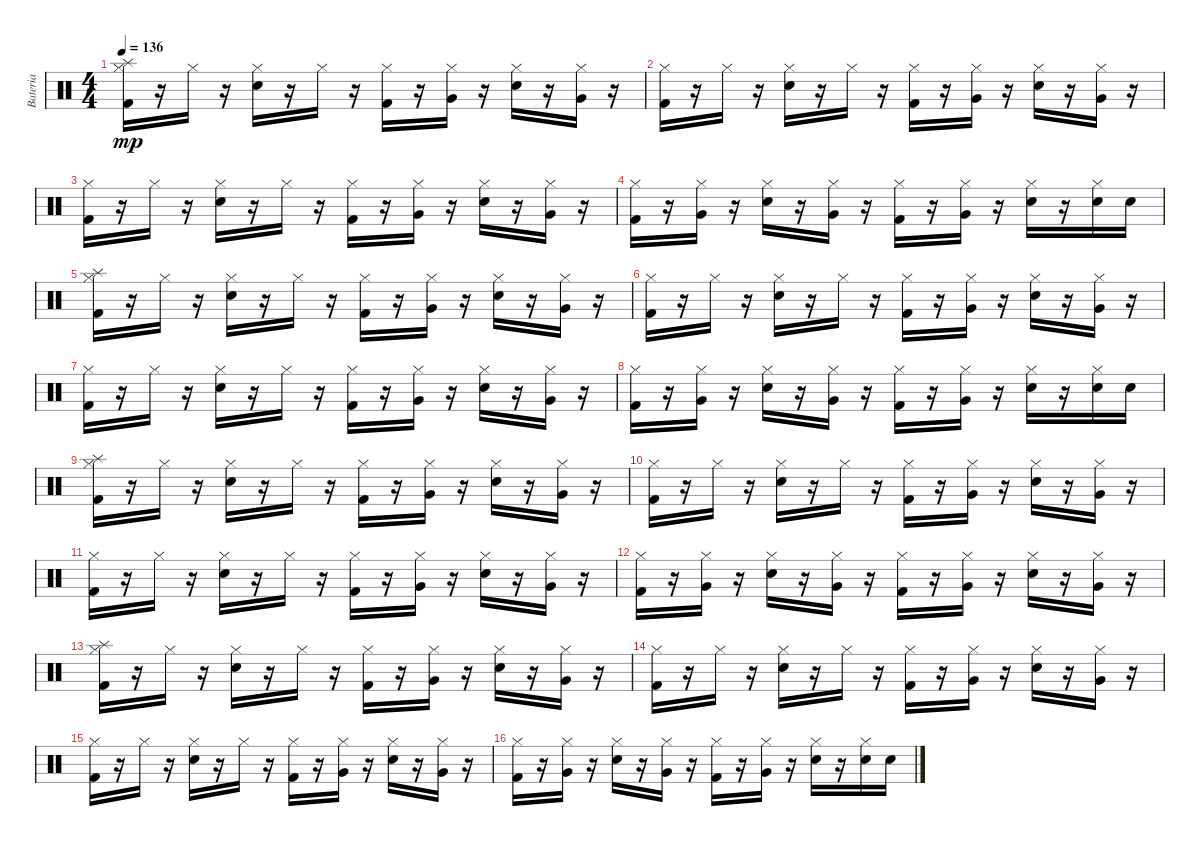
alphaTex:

\track ("Bateria" "Bateria") {instrument percussion}
\staff {score}
\articulation defaults
\ts (4 4)
\tempo 136
\clef neutral
\ks c
("Kick (hit) 2" "Hi-Hat (closed)" "Splash (hit)").16{dy mp} r.16 "Hi-Hat (closed)".16 r.16 ("Snare (hit) 2" "Hi-Hat (closed)").16 r.16 "Hi-Hat (closed)".16 r.16 ("Kick (hit) 2" "Hi-Hat (closed)").16 r.16 ("Hi-Hat (closed)" "Very Low Tom (hit)").16 r.16 ("Snare (hit) 2" "Hi-Hat (closed)").16 r.16 ("Hi-Hat (closed)" "Very Low Tom (hit)").16 r.16 |
("Kick (hit) 2" "Hi-Hat (closed)").16 r.16 "Hi-Hat (closed)".16 r.16 ("Snare (hit) 2" "Hi-Hat (closed)").16 r.16 "Hi-Hat (closed)".16 r.16 ("Kick (hit) 2" "Hi-Hat (closed)").16 r.16 ("Hi-Hat (closed)" "Very Low Tom (hit)").16 r.16 ("Snare (hit) 2" "Hi-Hat (closed)").16 r.16 ("Hi-Hat (closed)" "Very Low Tom (hit)").16 r.16 |
("Kick (hit) 2" "Hi-Hat (closed)").16 r.16 "Hi-Hat (closed)".16 r.16 ("Snare (hit) 2" "Hi-Hat (closed)").16 r.16 "Hi-Hat (closed)".16 r.16 ("Kick (hit) 2" "Hi-Hat (closed)").16 r.16 ("Hi-Hat (closed)" "Very Low Tom (hit)").16 r.16 ("Snare (hit) 2" "Hi-Hat (closed)").16 r.16 ("Hi-Hat (closed)" "Very Low Tom (hit)").16 r.16 |
("Kick (hit) 2" "Hi-Hat (closed)").16 r.16 ("Hi-Hat (closed)" "Very Low Tom (hit)").16 r.16 ("Snare (hit) 2" "Hi-Hat (closed)").16 r.16 ("Hi-Hat (closed)" "Very Low Tom (hit)").16 r.16 ("Kick (hit) 2" "Hi-Hat (closed)").16 r.16 ("Hi-Hat (closed)" "Very Low Tom (hit)").16 r.16 ("Snare (hit) 2" "Hi-Hat (closed)").16 r.16 ("Snare (hit) 2" "Hi-Hat (closed)").16 "Snare (hit) 2".16 |
("Kick (hit) 2" "Hi-Hat (closed)" "Splash (hit)").16 r.16 "Hi-Hat (closed)".16 r.16 ("Snare (hit) 2" "Hi-Hat (closed)").16 r.16 "Hi-Hat (closed)".16 r.16 ("Kick (hit) 2" "Hi-Hat (closed)").16 r.16 ("Hi-Hat (closed)" "Very Low Tom (hit)").16 r.16 ("Snare (hit) 2" "Hi-Hat (closed)").16 r.16 ("Hi-Hat (closed)" "Very Low Tom (hit)").16 r.16 |
("Kick (hit) 2" "Hi-Hat (closed)").16 r.16 "Hi-Hat (closed)".16 r.16 ("Snare (hit) 2" "Hi-Hat (closed)").16 r.16 "Hi-Hat (closed)".16 r.16 ("Kick (hit) 2" "Hi-Hat (closed)").16 r.16 ("Hi-Hat (closed)" "Very Low Tom (hit)").16 r.16 ("Snare (hit) 2" "Hi-Hat (closed)").16 r.16 ("Hi-Hat (closed)" "Very Low Tom (hit)").16 r.16 |
("Kick (hit) 2" "Hi-Hat (closed)").16 r.16 "Hi-Hat (closed)".16 r.16 ("Snare (hit) 2" "Hi-Hat (closed)").16 r.16 "Hi-Hat (closed)".16 r.16 ("Kick (hit) 2" "Hi-Hat (closed)").16 r.16 ("Hi-Hat (closed)" "Very Low Tom (hit)").16 r.16 ("Snare (hit) 2" "Hi-Hat (closed)").16 r.16 ("Hi-Hat (closed)" "Very Low Tom (hit)").16 r.16 |
("Kick (hit) 2" "Hi-Hat (closed)").16 r.16 ("Hi-Hat (closed)" "Very Low Tom (hit)").16 r.16 ("Snare (hit) 2" "Hi-Hat (closed)").16 r.16 ("Hi-Hat (closed)" "Very Low Tom (hit)").16 r.16 ("Kick (hit) 2" "Hi-Hat (closed)").16 r.16 ("Hi-Hat (closed)" "Very Low Tom (hit)").16 r.16 ("Snare (hit) 2" "Hi-Hat (closed)").16 r.16 ("Snare (hit) 2" "Hi-Hat (closed)").16 "Snare (hit) 2".16 |
("Kick (hit) 2" "Hi-Hat (closed)" "Splash (hit)").16 r.16 "Hi-Hat (closed)".16 r.16 ("Snare (hit) 2" "Hi-Hat (closed)").16 r.16 "Hi-Hat (closed)".16 r.16 ("Kick (hit) 2" "Hi-Hat (closed)").16 r.16 ("Hi-Hat (closed)" "Very Low Tom (hit)").16 r.16 ("Snare (hit) 2" "Hi-Hat (closed)").16 r.16 ("Hi-Hat (closed)" "Very Low Tom (hit)").16 r.16 |
("Kick (hit) 2" "Hi-Hat (closed)").16 r.16 "Hi-Hat (closed)".16 r.16 ("Snare (hit) 2" "Hi-Hat (closed)").16 r.16 "Hi-Hat (closed)".16 r.16 ("Kick (hit) 2" "Hi-Hat (closed)").16 r.16 ("Hi-Hat (closed)" "Very Low Tom (hit)").16 r.16 ("Snare (hit) 2" "Hi-Hat (closed)").16 r.16 ("Hi-Hat (closed)" "Very Low Tom (hit)").16 r.16 |
("Kick (hit) 2" "Hi-Hat (closed)").16 r.16 "Hi-Hat (closed)".16 r.16 ("Snare (hit) 2" "Hi-Hat (closed)").16 r.16 "Hi-Hat (closed)".16 r.16 ("Kick (hit) 2" "Hi-Hat (closed)").16 r.16 ("Hi-Hat (closed)" "Very Low Tom (hit)").16 r.16 ("Snare (hit) 2" "Hi-Hat (closed)").16 r.16 ("Hi-Hat (closed)" "Very Low Tom (hit)").16 r.16 |
("Kick (hit) 2" "Hi-Hat (closed)").16 r.16 ("Hi-Hat (closed)" "Very Low Tom (hit)").16 r.16 ("Snare (hit) 2" "Hi-Hat (closed)").16 r.16 ("Hi-Hat (closed)" "Very Low Tom (hit)").16 r.16 ("Kick (hit) 2" "Hi-Hat (closed)").16 r.16 ("Hi-Hat (closed)" "Very Low Tom (hit)").16 r.16 ("Snare (hit) 2" "Hi-Hat (closed)").16 r.16 ("Hi-Hat (closed)" "Very Low Tom (hit)").16 r.16 |
("Kick (hit) 2" "Hi-Hat (closed)" "Splash (hit)").16 r.16 "Hi-Hat (closed)".16 r.16 ("Snare (hit) 2" "Hi-Hat (closed)").16 r.16 "Hi-Hat (closed)".16 r.16 ("Kick (hit) 2" "Hi-Hat (closed)").16 r.16 ("Hi-Hat (closed)" "Very Low Tom (hit)").16 r.16 ("Snare (hit) 2" "Hi-Hat (closed)").16 r.16 ("Hi-Hat (closed)" "Very Low Tom (hit)").16 r.16 |
("Kick (hit) 2" "Hi-Hat (closed)").16 r.16 "Hi-Hat (closed)".16 r.16 ("Snare (hit) 2" "Hi-Hat (closed)").16 r.16 "Hi-Hat (closed)".16 r.16 ("Kick (hit) 2" "Hi-Hat (closed)").16 r.16 ("Hi-Hat (closed)" "Very Low Tom (hit)").16 r.16 ("Snare (hit) 2" "Hi-Hat (closed)").16 r.16 ("Hi-Hat (closed)" "Very Low Tom (hit)").16 r.16 |
("Kick (hit) 2" "Hi-Hat (closed)").16 r.16 "Hi-Hat (closed)".16 r.16 ("Snare (hit) 2" "Hi-Hat (closed)").16 r.16 "Hi-Hat (closed)".16 r.16 ("Kick (hit) 2" "Hi-Hat (closed)").16 r.16 ("Hi-Hat (closed)" "Very Low Tom (hit)").16 r.16 ("Snare (hit) 2" "Hi-Hat (closed)").16 r.16 ("Hi-Hat (closed)" "Very Low Tom (hit)").16 r.16 |
("Kick (hit) 2" "Hi-Hat (closed)").16 r.16 ("Hi-Hat (closed)" "Very Low Tom (hit)").16 r.16 ("Snare (hit) 2" "Hi-Hat (closed)").16 r.16 ("Hi-Hat (closed)" "Very Low Tom (hit)").16 r.16 ("Kick (hit) 2" "Hi-Hat (closed)").16 r.16 ("Hi-Hat (closed)" "Very Low Tom (hit)").16 r.16 ("Snare (hit) 2" "Hi-Hat (closed)").16 r.16 ("Snare (hit) 2" "Hi-Hat (closed)").16 "Snare (hit) 2".16
